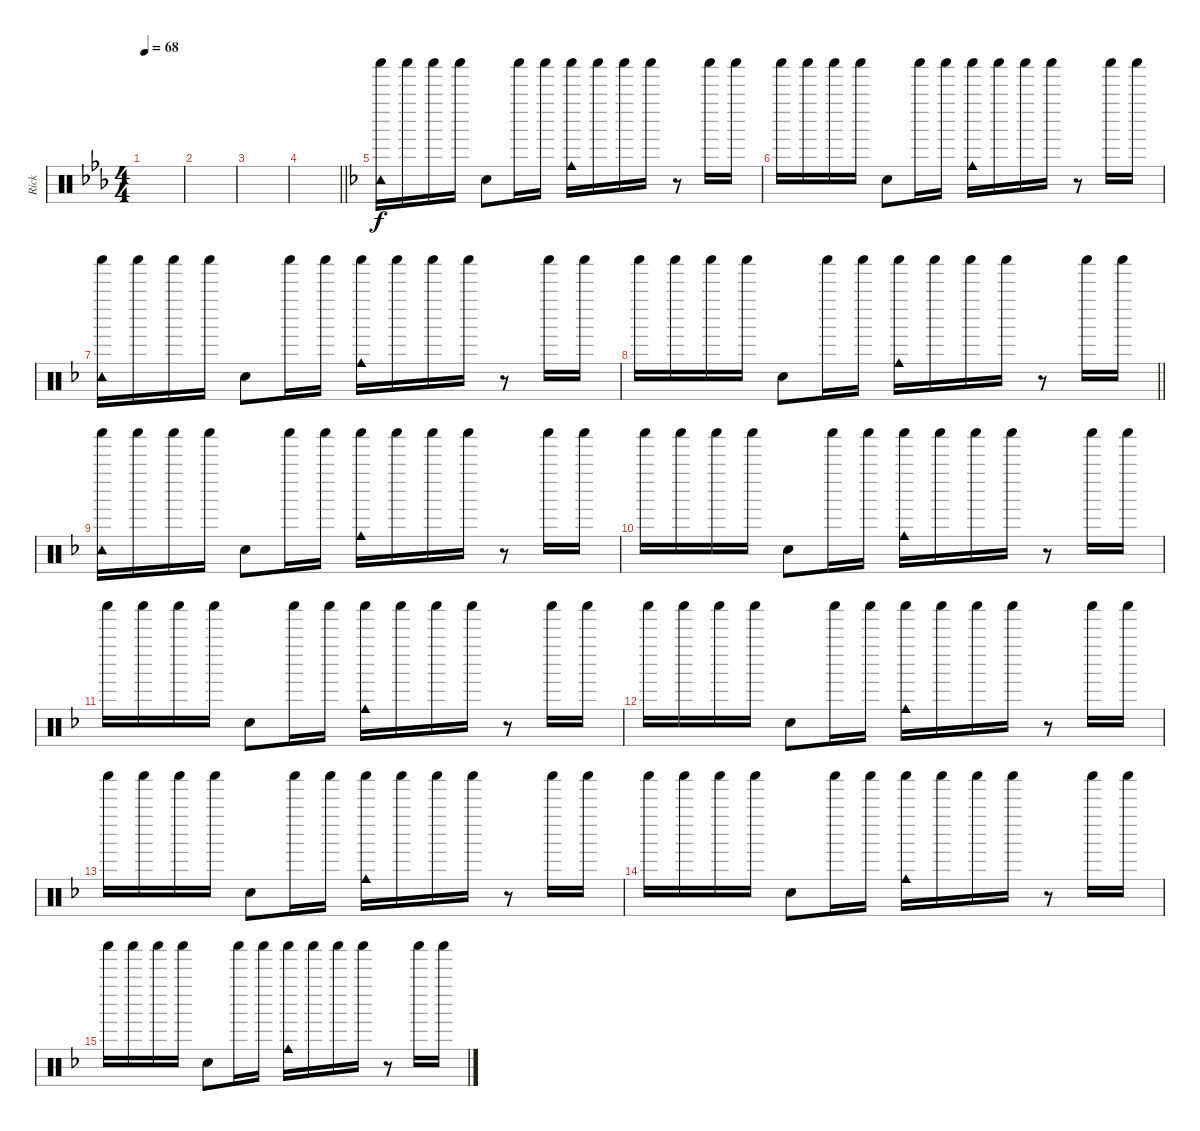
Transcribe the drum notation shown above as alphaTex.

\track ("Rick" "Rick") {instrument percussion}
\staff {score}
\articulation defaults
\ts (4 4)
\tempo 68
\clef neutral
\ks eb
|
|
|
\barLineRight lightlight
|
\ks dminor
("Tambourine (hit)" "Shaker (hit)").16 "Shaker (hit)".16 "Shaker (hit)".16 "Shaker (hit)".16 "Hand Clap (hit)".8 "Shaker (hit)".16 "Shaker (hit)".16 ("Cowbell medium (hit)" "Shaker (hit)").16 "Shaker (hit)".16 "Shaker (hit)".16 "Shaker (hit)".16 r.8 "Shaker (hit)".16 "Shaker (hit)".16 |
"Shaker (hit)".16 "Shaker (hit)".16 "Shaker (hit)".16 "Shaker (hit)".16 "Hand Clap (hit)".8 "Shaker (hit)".16 "Shaker (hit)".16 ("Cowbell medium (hit)" "Shaker (hit)").16 "Shaker (hit)".16 "Shaker (hit)".16 "Shaker (hit)".16 r.8 "Shaker (hit)".16 "Shaker (hit)".16 |
("Tambourine (hit)" "Shaker (hit)").16 "Shaker (hit)".16 "Shaker (hit)".16 "Shaker (hit)".16 "Hand Clap (hit)".8 "Shaker (hit)".16 "Shaker (hit)".16 ("Cowbell medium (hit)" "Shaker (hit)").16 "Shaker (hit)".16 "Shaker (hit)".16 "Shaker (hit)".16 r.8 "Shaker (hit)".16 "Shaker (hit)".16 |
\barLineRight lightlight "Shaker (hit)".16 "Shaker (hit)".16 "Shaker (hit)".16 "Shaker (hit)".16 "Hand Clap (hit)".8 "Shaker (hit)".16 "Shaker (hit)".16
("Cowbell medium (hit)" "Shaker (hit)").16 "Shaker (hit)".16 "Shaker (hit)".16 "Shaker (hit)".16 r.8 "Shaker (hit)".16 "Shaker (hit)".16 |
("Tambourine (hit)" "Shaker (hit)").16 "Shaker (hit)".16 "Shaker (hit)".16 "Shaker (hit)".16 "Hand Clap (hit)".8 "Shaker (hit)".16 "Shaker (hit)".16 ("Cowbell medium (hit)" "Shaker (hit)").16 "Shaker (hit)".16 "Shaker (hit)".16 "Shaker (hit)".16 r.8 "Shaker (hit)".16 "Shaker (hit)".16 |
"Shaker (hit)".16 "Shaker (hit)".16 "Shaker (hit)".16 "Shaker (hit)".16 "Hand Clap (hit)".8 "Shaker (hit)".16 "Shaker (hit)".16 ("Cowbell medium (hit)" "Shaker (hit)").16 "Shaker (hit)".16 "Shaker (hit)".16 "Shaker (hit)".16 r.8 "Shaker (hit)".16 "Shaker (hit)".16 |
"Shaker (hit)".16 "Shaker (hit)".16 "Shaker (hit)".16 "Shaker (hit)".16 "Hand Clap (hit)".8 "Shaker (hit)".16 "Shaker (hit)".16 ("Cowbell medium (hit)" "Shaker (hit)").16 "Shaker (hit)".16 "Shaker (hit)".16 "Shaker (hit)".16 r.8 "Shaker (hit)".16 "Shaker (hit)".16 |
"Shaker (hit)".16 "Shaker (hit)".16 "Shaker (hit)".16 "Shaker (hit)".16 "Hand Clap (hit)".8 "Shaker (hit)".16 "Shaker (hit)".16 ("Cowbell medium (hit)" "Shaker (hit)").16 "Shaker (hit)".16 "Shaker (hit)".16 "Shaker (hit)".16 r.8 "Shaker (hit)".16 "Shaker (hit)".16 |
"Shaker (hit)".16 "Shaker (hit)".16 "Shaker (hit)".16 "Shaker (hit)".16 "Hand Clap (hit)".8 "Shaker (hit)".16 "Shaker (hit)".16 ("Cowbell medium (hit)" "Shaker (hit)").16 "Shaker (hit)".16 "Shaker (hit)".16 "Shaker (hit)".16 r.8 "Shaker (hit)".16 "Shaker (hit)".16 |
"Shaker (hit)".16 "Shaker (hit)".16 "Shaker (hit)".16 "Shaker (hit)".16 "Hand Clap (hit)".8 "Shaker (hit)".16 "Shaker (hit)".16 ("Cowbell medium (hit)" "Shaker (hit)").16 "Shaker (hit)".16 "Shaker (hit)".16 "Shaker (hit)".16 r.8 "Shaker (hit)".16 "Shaker (hit)".16 |
"Shaker (hit)".16 "Shaker (hit)".16 "Shaker (hit)".16 "Shaker (hit)".16 "Hand Clap (hit)".8 "Shaker (hit)".16 "Shaker (hit)".16 ("Cowbell medium (hit)" "Shaker (hit)").16 "Shaker (hit)".16 "Shaker (hit)".16 "Shaker (hit)".16 r.8 "Shaker (hit)".16 "Shaker (hit)".16
